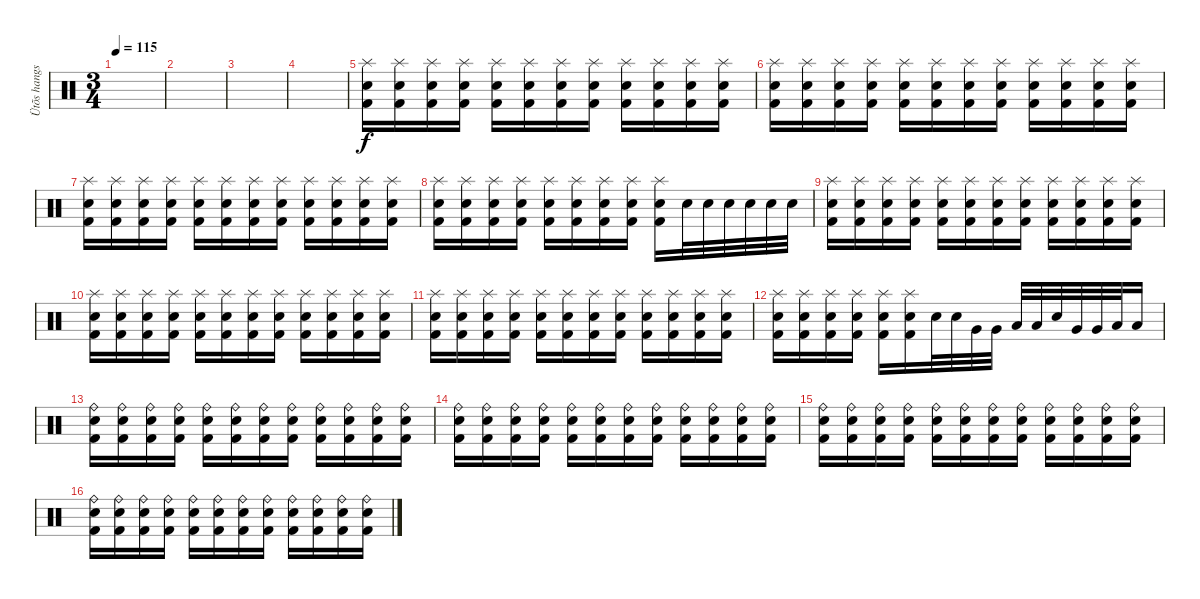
\track ("Ütõs hangszer" "Ütõs hangs") {instrument percussion}
\staff {score}
\articulation defaults
\ts (3 4)
\tempo 115
\clef neutral
\ks c
|
|
|
|
("Splash (hit)" "Electric Snare (hit)" "Kick (hit) 2").16 ("Splash (hit)" "Electric Snare (hit)" "Kick (hit) 2").16 ("Splash (hit)" "Electric Snare (hit)" "Kick (hit) 2").16 ("Splash (hit)" "Electric Snare (hit)" "Kick (hit) 2").16 ("Splash (hit)" "Electric Snare (hit)" "Kick (hit) 2").16 ("Splash (hit)" "Electric Snare (hit)" "Kick (hit) 2").16 ("Splash (hit)" "Electric Snare (hit)" "Kick (hit) 2").16 ("Splash (hit)" "Electric Snare (hit)" "Kick (hit) 2").16 ("Splash (hit)" "Electric Snare (hit)" "Kick (hit) 2").16 ("Splash (hit)" "Electric Snare (hit)" "Kick (hit) 2").16 ("Splash (hit)" "Electric Snare (hit)" "Kick (hit) 2").16 ("Splash (hit)" "Electric Snare (hit)" "Kick (hit) 2").16 |
("Splash (hit)" "Electric Snare (hit)" "Kick (hit) 2").16 ("Splash (hit)" "Electric Snare (hit)" "Kick (hit) 2").16 ("Splash (hit)" "Electric Snare (hit)" "Kick (hit) 2").16 ("Splash (hit)" "Electric Snare (hit)" "Kick (hit) 2").16 ("Splash (hit)" "Electric Snare (hit)" "Kick (hit) 2").16 ("Splash (hit)" "Electric Snare (hit)" "Kick (hit) 2").16 ("Splash (hit)" "Electric Snare (hit)" "Kick (hit) 2").16 ("Splash (hit)" "Electric Snare (hit)" "Kick (hit) 2").16 ("Splash (hit)" "Electric Snare (hit)" "Kick (hit) 2").16 ("Splash (hit)" "Electric Snare (hit)" "Kick (hit) 2").16 ("Splash (hit)" "Electric Snare (hit)" "Kick (hit) 2").16 ("Splash (hit)" "Electric Snare (hit)" "Kick (hit) 2").16 |
("Splash (hit)" "Electric Snare (hit)" "Kick (hit) 2").16 ("Splash (hit)" "Electric Snare (hit)" "Kick (hit) 2").16 ("Splash (hit)" "Electric Snare (hit)" "Kick (hit) 2").16 ("Splash (hit)" "Electric Snare (hit)" "Kick (hit) 2").16 ("Splash (hit)" "Electric Snare (hit)" "Kick (hit) 2").16 ("Splash (hit)" "Electric Snare (hit)" "Kick (hit) 2").16 ("Splash (hit)" "Electric Snare (hit)" "Kick (hit) 2").16 ("Splash (hit)" "Electric Snare (hit)" "Kick (hit) 2").16 ("Splash (hit)" "Electric Snare (hit)" "Kick (hit) 2").16 ("Splash (hit)" "Electric Snare (hit)" "Kick (hit) 2").16 ("Splash (hit)" "Electric Snare (hit)" "Kick (hit) 2").16 ("Splash (hit)" "Electric Snare (hit)" "Kick (hit) 2").16 |
("Splash (hit)" "Electric Snare (hit)" "Kick (hit) 2").16 ("Splash (hit)" "Electric Snare (hit)" "Kick (hit) 2").16 ("Splash (hit)" "Electric Snare (hit)" "Kick (hit) 2").16 ("Splash (hit)" "Electric Snare (hit)" "Kick (hit) 2").16 ("Splash (hit)" "Electric Snare (hit)" "Kick (hit) 2").16 ("Splash (hit)" "Electric Snare (hit)" "Kick (hit) 2").16 ("Splash (hit)" "Electric Snare (hit)" "Kick (hit) 2").16 ("Splash (hit)" "Electric Snare (hit)" "Kick (hit) 2").16 ("Splash (hit)" "Electric Snare (hit)" "Kick (hit) 2").16 "Electric Snare (hit)".32 "Electric Snare (hit)".32 "Electric Snare (hit)".32 "Electric Snare (hit)".32 "Electric Snare (hit)".32 "Electric Snare (hit)".32 |
("Splash (hit)" "Electric Snare (hit)" "Kick (hit) 2").16 ("Splash (hit)" "Electric Snare (hit)" "Kick (hit) 2").16 ("Splash (hit)" "Electric Snare (hit)" "Kick (hit) 2").16 ("Splash (hit)" "Electric Snare (hit)" "Kick (hit) 2").16 ("Splash (hit)" "Electric Snare (hit)" "Kick (hit) 2").16 ("Splash (hit)" "Electric Snare (hit)" "Kick (hit) 2").16 ("Splash (hit)" "Electric Snare (hit)" "Kick (hit) 2").16 ("Splash (hit)" "Electric Snare (hit)" "Kick (hit) 2").16 ("Splash (hit)" "Electric Snare (hit)" "Kick (hit) 2").16 ("Splash (hit)" "Electric Snare (hit)" "Kick (hit) 2").16 ("Splash (hit)" "Electric Snare (hit)" "Kick (hit) 2").16 ("Splash (hit)" "Electric Snare (hit)" "Kick (hit) 2").16 |
("Splash (hit)" "Electric Snare (hit)" "Kick (hit) 2").16 ("Splash (hit)" "Electric Snare (hit)" "Kick (hit) 2").16 ("Splash (hit)" "Electric Snare (hit)" "Kick (hit) 2").16 ("Splash (hit)" "Electric Snare (hit)" "Kick (hit) 2").16 ("Splash (hit)" "Electric Snare (hit)" "Kick (hit) 2").16 ("Splash (hit)" "Electric Snare (hit)" "Kick (hit) 2").16 ("Splash (hit)" "Electric Snare (hit)" "Kick (hit) 2").16 ("Splash (hit)" "Electric Snare (hit)" "Kick (hit) 2").16 ("Splash (hit)" "Electric Snare (hit)" "Kick (hit) 2").16 ("Splash (hit)" "Electric Snare (hit)" "Kick (hit) 2").16 ("Splash (hit)" "Electric Snare (hit)" "Kick (hit) 2").16 ("Splash (hit)" "Electric Snare (hit)" "Kick (hit) 2").16 |
("Splash (hit)" "Electric Snare (hit)" "Kick (hit) 2").16 ("Splash (hit)" "Electric Snare (hit)" "Kick (hit) 2").16 ("Splash (hit)" "Electric Snare (hit)" "Kick (hit) 2").16 ("Splash (hit)" "Electric Snare (hit)" "Kick (hit) 2").16 ("Splash (hit)" "Electric Snare (hit)" "Kick (hit) 2").16 ("Splash (hit)" "Electric Snare (hit)" "Kick (hit) 2").16 ("Splash (hit)" "Electric Snare (hit)" "Kick (hit) 2").16 ("Splash (hit)" "Electric Snare (hit)" "Kick (hit) 2").16 ("Splash (hit)" "Electric Snare (hit)" "Kick (hit) 2").16 ("Splash (hit)" "Electric Snare (hit)" "Kick (hit) 2").16 ("Splash (hit)" "Electric Snare (hit)" "Kick (hit) 2").16 ("Splash (hit)" "Electric Snare (hit)" "Kick (hit) 2").16 |
("Splash (hit)" "Electric Snare (hit)" "Kick (hit) 2").16 ("Splash (hit)" "Electric Snare (hit)" "Kick (hit) 2").16 ("Splash (hit)" "Electric Snare (hit)" "Kick (hit) 2").16 ("Splash (hit)" "Electric Snare (hit)" "Kick (hit) 2").16 ("Splash (hit)" "Electric Snare (hit)" "Kick (hit) 2").16 ("Splash (hit)" "Electric Snare (hit)" "Kick (hit) 2").16 "Electric Snare (hit)".32 "Electric Snare (hit)".32 "Very Low Tom (hit)".32 "Very Low Tom (hit)".32 "Low Floor Tom (hit)".32 "Low Floor Tom (hit)".32 "Electric Snare (hit)".32 "Very Low Tom (hit)".32 "Very Low Tom (hit)".32 "Low Floor Tom (hit)".32 "Low Floor Tom (hit)".16 |
("Ride (bell)" "Electric Snare (hit)" "Kick (hit) 2").16 ("Ride (bell)" "Electric Snare (hit)" "Kick (hit) 2").16 ("Ride (bell)" "Electric Snare (hit)" "Kick (hit) 2").16 ("Ride (bell)" "Electric Snare (hit)" "Kick (hit) 2").16 ("Ride (bell)" "Electric Snare (hit)" "Kick (hit) 2").16 ("Ride (bell)" "Electric Snare (hit)" "Kick (hit) 2").16 ("Ride (bell)" "Electric Snare (hit)" "Kick (hit) 2").16 ("Ride (bell)" "Electric Snare (hit)" "Kick (hit) 2").16 ("Ride (bell)" "Electric Snare (hit)" "Kick (hit) 2").16 ("Ride (bell)" "Electric Snare (hit)" "Kick (hit) 2").16 ("Ride (bell)" "Electric Snare (hit)" "Kick (hit) 2").16 ("Ride (bell)" "Electric Snare (hit)" "Kick (hit) 2").16 |
("Ride (bell)" "Electric Snare (hit)" "Kick (hit) 2").16 ("Ride (bell)" "Electric Snare (hit)" "Kick (hit) 2").16 ("Ride (bell)" "Electric Snare (hit)" "Kick (hit) 2").16 ("Ride (bell)" "Electric Snare (hit)" "Kick (hit) 2").16 ("Ride (bell)" "Electric Snare (hit)" "Kick (hit) 2").16 ("Ride (bell)" "Electric Snare (hit)" "Kick (hit) 2").16 ("Ride (bell)" "Electric Snare (hit)" "Kick (hit) 2").16 ("Ride (bell)" "Electric Snare (hit)" "Kick (hit) 2").16 ("Ride (bell)" "Electric Snare (hit)" "Kick (hit) 2").16 ("Ride (bell)" "Electric Snare (hit)" "Kick (hit) 2").16 ("Ride (bell)" "Electric Snare (hit)" "Kick (hit) 2").16 ("Ride (bell)" "Electric Snare (hit)" "Kick (hit) 2").16 |
("Ride (bell)" "Electric Snare (hit)" "Kick (hit) 2").16 ("Ride (bell)" "Electric Snare (hit)" "Kick (hit) 2").16 ("Ride (bell)" "Electric Snare (hit)" "Kick (hit) 2").16 ("Ride (bell)" "Electric Snare (hit)" "Kick (hit) 2").16 ("Ride (bell)" "Electric Snare (hit)" "Kick (hit) 2").16 ("Ride (bell)" "Electric Snare (hit)" "Kick (hit) 2").16 ("Ride (bell)" "Electric Snare (hit)" "Kick (hit) 2").16 ("Ride (bell)" "Electric Snare (hit)" "Kick (hit) 2").16 ("Ride (bell)" "Electric Snare (hit)" "Kick (hit) 2").16 ("Ride (bell)" "Electric Snare (hit)" "Kick (hit) 2").16 ("Ride (bell)" "Electric Snare (hit)" "Kick (hit) 2").16 ("Ride (bell)" "Electric Snare (hit)" "Kick (hit) 2").16 |
("Ride (bell)" "Electric Snare (hit)" "Kick (hit) 2").16 ("Ride (bell)" "Electric Snare (hit)" "Kick (hit) 2").16 ("Ride (bell)" "Electric Snare (hit)" "Kick (hit) 2").16 ("Ride (bell)" "Electric Snare (hit)" "Kick (hit) 2").16 ("Ride (bell)" "Electric Snare (hit)" "Kick (hit) 2").16 ("Ride (bell)" "Electric Snare (hit)" "Kick (hit) 2").16 ("Ride (bell)" "Electric Snare (hit)" "Kick (hit) 2").16 ("Ride (bell)" "Electric Snare (hit)" "Kick (hit) 2").16 ("Ride (bell)" "Electric Snare (hit)" "Kick (hit) 2").16 ("Ride (bell)" "Electric Snare (hit)" "Kick (hit) 2").16 ("Ride (bell)" "Electric Snare (hit)" "Kick (hit) 2").16 ("Ride (bell)" "Electric Snare (hit)" "Kick (hit) 2").16
